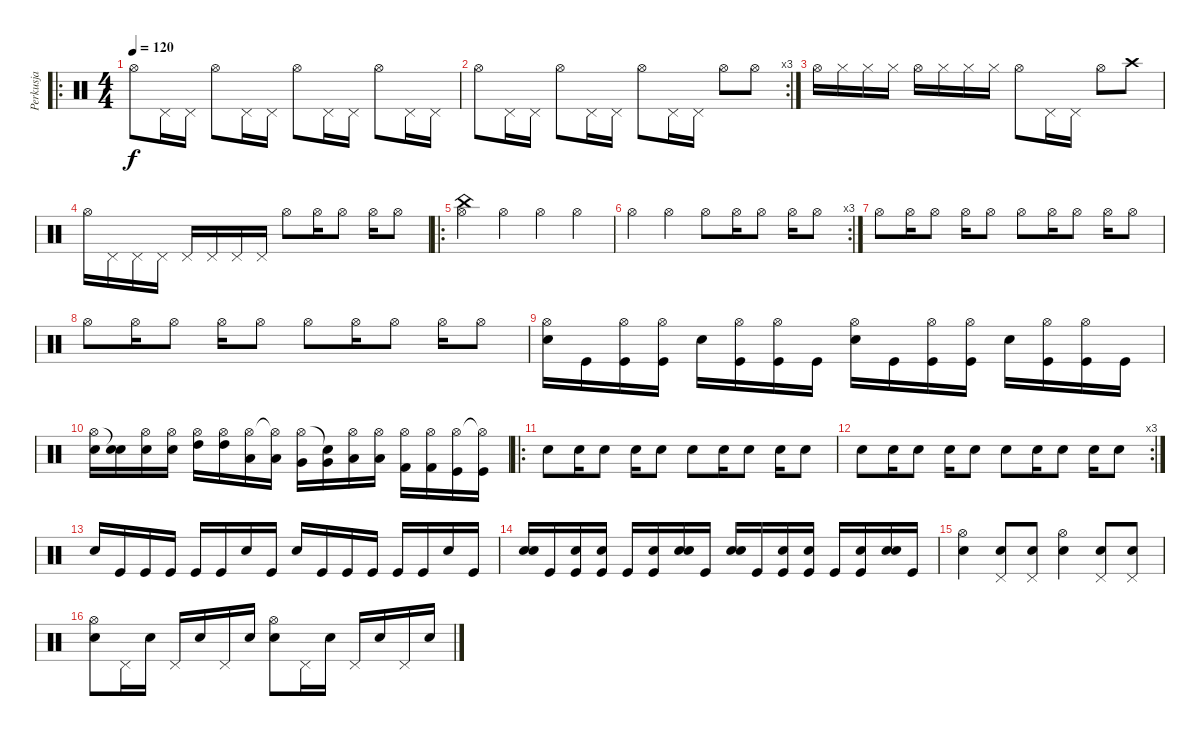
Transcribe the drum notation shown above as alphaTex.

\track ("Perkusja" "Perkusja") {instrument percussion}
\staff {score}
\articulation defaults
\ro
\ts (4 4)
\tempo 120
\clef neutral
\ks c "Hi-Hat (open)".8{dy f} "Pedal Hi-Hat (hit)".16 "Pedal Hi-Hat (hit)".16 "Hi-Hat (open)".8 "Pedal Hi-Hat (hit)".16 "Pedal Hi-Hat (hit)".16 "Hi-Hat (open)".8 "Pedal Hi-Hat (hit)".16 "Pedal Hi-Hat (hit)".16 "Hi-Hat (open)".8 "Pedal Hi-Hat (hit)".16 "Pedal Hi-Hat (hit)".16
|
\rc 3 "Hi-Hat (open)".8 "Pedal Hi-Hat (hit)".16 "Pedal Hi-Hat (hit)".16 "Hi-Hat (open)".8 "Pedal Hi-Hat (hit)".16 "Pedal Hi-Hat (hit)".16 "Hi-Hat (open)".8 "Pedal Hi-Hat (hit)".16 "Pedal Hi-Hat (hit)".16 "Hi-Hat (open)".8 "Hi-Hat (open)".8
|
"Hi-Hat (open)".16 "Hi-Hat (closed)".16 "Hi-Hat (closed)".16 "Hi-Hat (closed)".16 "Hi-Hat (open)".16 "Hi-Hat (closed)".16 "Hi-Hat (closed)".16 "Hi-Hat (closed)".16 "Hi-Hat (open)".8 "Pedal Hi-Hat (hit)".16 "Pedal Hi-Hat (hit)".16 "Hi-Hat (open)".8 "Crash high (hit)".8 |
"Hi-Hat (open)".16 "Pedal Hi-Hat (hit)".16 "Pedal Hi-Hat (hit)".16 "Pedal Hi-Hat (hit)".16 "Pedal Hi-Hat (hit)".16 "Pedal Hi-Hat (hit)".16 "Pedal Hi-Hat (hit)".16 "Pedal Hi-Hat (hit)".16 "Hi-Hat (open)".8 "Hi-Hat (open)".16 "Hi-Hat (open)".8 "Hi-Hat (open)".16 "Hi-Hat (open)".8 |
\ro
("China (hit)" "Hi-Hat (open)").4 "Hi-Hat (open)".4 "Hi-Hat (open)".4 "Hi-Hat (open)".4 |
\rc 3 "Hi-Hat (open)".4 "Hi-Hat (open)".4 "Hi-Hat (open)".8 "Hi-Hat (open)".16 "Hi-Hat (open)".8 "Hi-Hat (open)".16 "Hi-Hat (open)".8
|
"Hi-Hat (open)".8 "Hi-Hat (open)".16 "Hi-Hat (open)".8 "Hi-Hat (open)".16 "Hi-Hat (open)".8 "Hi-Hat (open)".8 "Hi-Hat (open)".16 "Hi-Hat (open)".8 "Hi-Hat (open)".16 "Hi-Hat (open)".8 |
"Hi-Hat (open)".8 "Hi-Hat (open)".16 "Hi-Hat (open)".8 "Hi-Hat (open)".16 "Hi-Hat (open)".8 "Hi-Hat (open)".8 "Hi-Hat (open)".16 "Hi-Hat (open)".8 "Hi-Hat (open)".16 "Hi-Hat (open)".8 |
("Hi-Hat (open)" "Snare (hit) 2").16 "Kick (hit)".16 ("Hi-Hat (open)" "Kick (hit)").16 ("Hi-Hat (open)" "Kick (hit)").16 "Snare (hit) 2".16 ("Hi-Hat (open)" "Kick (hit)").16 ("Hi-Hat (open)" "Kick (hit)").16 "Kick (hit)".16 ("Hi-Hat (open)" "Snare (hit) 2").16 "Kick (hit)".16 ("Hi-Hat (open)" "Kick (hit)").16 ("Hi-Hat (open)" "Kick (hit)").16 "Snare (hit) 2".16 ("Hi-Hat (open)" "Kick (hit)").16 ("Hi-Hat (open)" "Kick (hit)").16 "Kick (hit)".16 |
("Electric Snare (hit)" "Hi-Hat (open)").16 ("Electric Snare (hit)" "Snare (hit)"{t}).16 ("Snare (hit) 2" "Hi-Hat (open)").16 ("Snare (hit) 2" "Hi-Hat (open)").16 ("High Tom (hit)" "Hi-Hat (open)").16 ("High Tom (hit)" "Hi-Hat (open)").16 ("Low Tom (hit)" "Hi-Hat (open)").16 ("Low Tom (hit)" "Hi-Hat (open)"{t}).16 ("Very Low Tom (hit)" "Hi-Hat (open)").16 ("Very Low Tom (hit)" "Snare (hit)"{t}).16 ("Low Floor Tom (hit)" "Hi-Hat (open)").16 ("Low Floor Tom (hit)" "Hi-Hat (open)").16 ("Kick (hit) 2" "Hi-Hat (open)").16 ("Kick (hit) 2" "Hi-Hat (open)").16 ("Kick (hit)" "Hi-Hat (open)").16 ("Kick (hit)" "Hi-Hat (open)"{t}).16 |
\ro "Snare (hit) 2".8 "Electric Snare (hit)".16 "Snare (hit) 2".8 "Electric Snare (hit)".16 "Snare (hit) 2".8 "Snare (hit) 2".8 "Electric Snare (hit)".16 "Snare (hit) 2".8 "Electric Snare (hit)".16 "Snare (hit) 2".8
|
\rc 3 "Snare (hit) 2".8 "Electric Snare (hit)".16 "Snare (hit) 2".8 "Electric Snare (hit)".16 "Snare (hit) 2".8 "Snare (hit) 2".8 "Electric Snare (hit)".16 "Snare (hit) 2".8 "Electric Snare (hit)".16 "Snare (hit) 2".8
|
"Snare (hit) 2".16 "Kick (hit)".16 "Kick (hit)".16 "Kick (hit)".16 "Kick (hit)".16 "Kick (hit)".16 "Snare (hit) 2".16 "Kick (hit)".16 "Snare (hit) 2".16 "Kick (hit)".16 "Kick (hit)".16 "Kick (hit)".16 "Kick (hit)".16 "Kick (hit)".16 "Snare (hit) 2".16 "Kick (hit)".16 |
("Snare (hit) 2" "Snare (hit) 2").16 "Kick (hit)".16 ("Electric Snare (hit)" "Kick (hit)").16 ("Electric Snare (hit)" "Kick (hit)").16 "Kick (hit)".16 ("Electric Snare (hit)" "Kick (hit)").16 ("Electric Snare (hit)" "Snare (hit) 2").16 "Kick (hit)".16 ("Electric Snare (hit)" "Snare (hit) 2").16 "Kick (hit)".16 ("Electric Snare (hit)" "Kick (hit)").16 ("Electric Snare (hit)" "Kick (hit)").16 "Kick (hit)".16 ("Electric Snare (hit)" "Kick (hit)").16 ("Electric Snare (hit)" "Snare (hit) 2").16 "Kick (hit)".16 |
("Hi-Hat (open)" "Electric Snare (hit)").4 ("Pedal Hi-Hat (hit)" "Snare (hit) 2").8 ("Pedal Hi-Hat (hit)" "Snare (hit) 2").8 ("Hi-Hat (open)" "Electric Snare (hit)").4 ("Pedal Hi-Hat (hit)" "Snare (hit) 2").8 ("Pedal Hi-Hat (hit)" "Snare (hit) 2").8 |
("Hi-Hat (open)" "Electric Snare (hit)").8 "Pedal Hi-Hat (hit)".16 "Snare (hit) 2".16 "Pedal Hi-Hat (hit)".16 "Snare (hit) 2".16 "Pedal Hi-Hat (hit)".16 "Snare (hit) 2".16 ("Hi-Hat (open)" "Electric Snare (hit)").8 "Pedal Hi-Hat (hit)".16 "Snare (hit) 2".16 "Pedal Hi-Hat (hit)".16 "Snare (hit) 2".16 "Pedal Hi-Hat (hit)".16 "Snare (hit) 2".16
